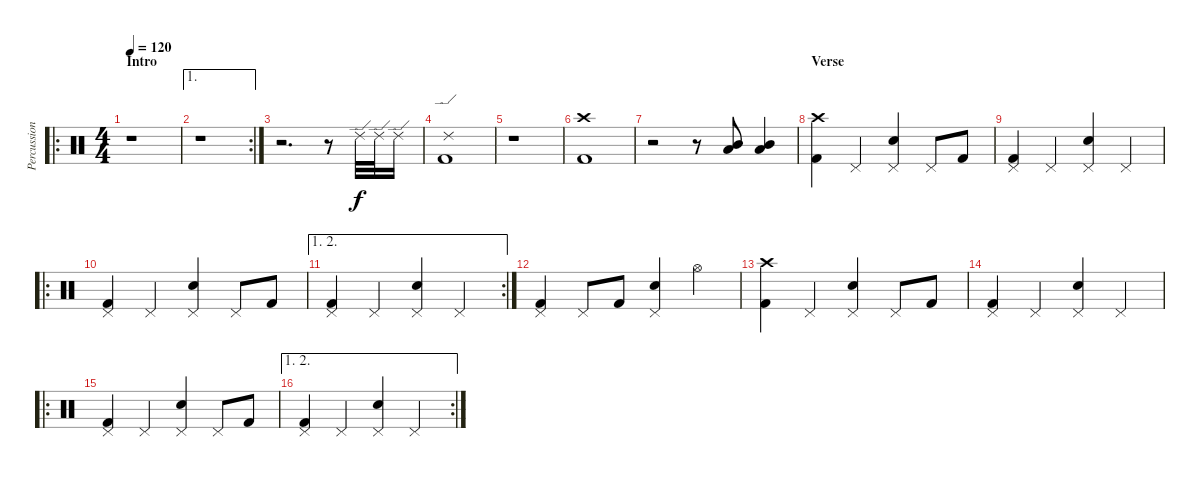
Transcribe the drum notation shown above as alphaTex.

\track ("Percussion" "Percussion") {instrument percussion}
\staff {score}
\articulation defaults
\ro
\ts (4 4)
\section ("" "Intro")
\tempo 120
\clef neutral
\ks c
r.1{dy f} |
\ae 1
\rc 2
r.1 |
r.2{d} r.8 "Ride (edge) 2".32 "Ride (edge) 2".32 "Ride (edge) 2".16 |
("Ride (edge) 2" "Kick (hit) 2").1 |
r.1 |
("Crash high (hit)" "Kick (hit) 2").1 |
r.2 r.8 ("Low Tom (hit)" "Mid Tom (hit)").8 ("Low Tom (hit)" "Mid Tom (hit)").4 |
\section ("" "Verse")
("Crash high (hit)" "Kick (hit) 2").4 "Pedal Hi-Hat (hit)".4 ("Pedal Hi-Hat (hit)" "Snare (hit) 2").4 "Pedal Hi-Hat (hit)".8 "Kick (hit) 2".8 |
("Pedal Hi-Hat (hit)" "Kick (hit) 2").4 "Pedal Hi-Hat (hit)".4 ("Pedal Hi-Hat (hit)" "Snare (hit) 2").4 "Pedal Hi-Hat (hit)".4 |
\ro
("Pedal Hi-Hat (hit)" "Kick (hit) 2").4 "Pedal Hi-Hat (hit)".4 ("Pedal Hi-Hat (hit)" "Snare (hit) 2").4 "Pedal Hi-Hat (hit)".8 "Kick (hit) 2".8 |
\ae (1 2)
\rc 2
("Pedal Hi-Hat (hit)" "Kick (hit) 2").4 "Pedal Hi-Hat (hit)".4 ("Pedal Hi-Hat (hit)" "Snare (hit) 2").4 "Pedal Hi-Hat (hit)".4 |
("Pedal Hi-Hat (hit)" "Kick (hit) 2").4 "Pedal Hi-Hat (hit)".8 "Kick (hit) 2".8 ("Pedal Hi-Hat (hit)" "Snare (hit) 2").4 "Hi-Hat (open)".4 |
("Crash high (hit)" "Kick (hit) 2").4 "Pedal Hi-Hat (hit)".4 ("Pedal Hi-Hat (hit)" "Snare (hit) 2").4 "Pedal Hi-Hat (hit)".8 "Kick (hit) 2".8 |
("Pedal Hi-Hat (hit)" "Kick (hit) 2").4 "Pedal Hi-Hat (hit)".4 ("Pedal Hi-Hat (hit)" "Snare (hit) 2").4 "Pedal Hi-Hat (hit)".4 |
\ro
("Pedal Hi-Hat (hit)" "Kick (hit) 2").4 "Pedal Hi-Hat (hit)".4 ("Pedal Hi-Hat (hit)" "Snare (hit) 2").4 "Pedal Hi-Hat (hit)".8 "Kick (hit) 2".8 |
\ae (1 2)
\rc 2
("Pedal Hi-Hat (hit)" "Kick (hit) 2").4 "Pedal Hi-Hat (hit)".4 ("Pedal Hi-Hat (hit)" "Snare (hit) 2").4 "Pedal Hi-Hat (hit)".4
